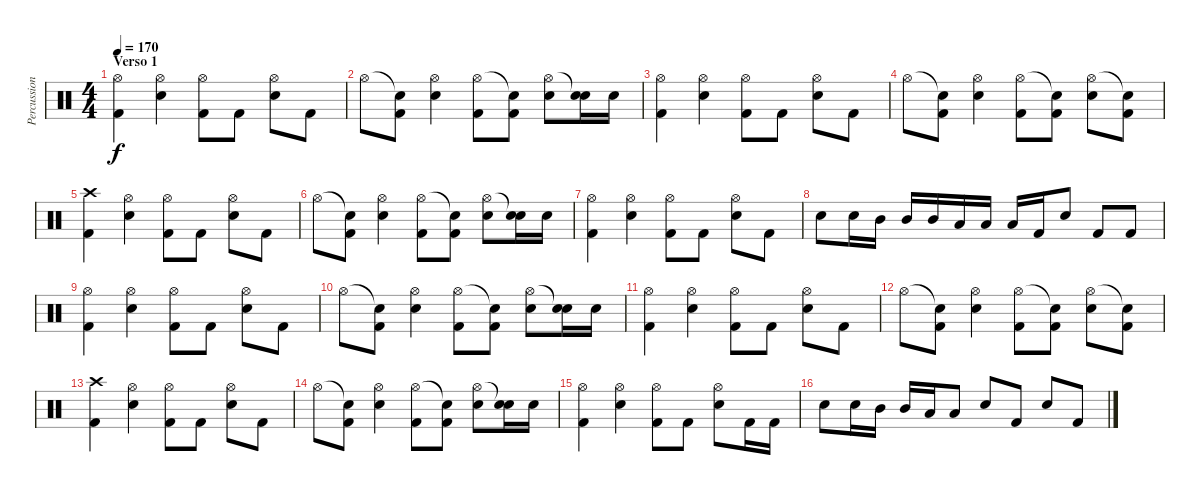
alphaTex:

\track ("Percussion" "Percussion") {instrument percussion}
\staff {score}
\articulation defaults
\ts (4 4)
\section ("" "Verso 1")
\tempo 170
\clef neutral
\ks c
("Hi-Hat (open)" "Kick (hit) 2").4{dy f} ("Hi-Hat (open)" "Electric Snare (hit)").4 ("Hi-Hat (open)" "Kick (hit) 2").8 "Kick (hit) 2".8 ("Hi-Hat (open)" "Electric Snare (hit)").8 "Kick (hit) 2".8 |
"Hi-Hat (open)".8 ("Snare (hit)"{t} "Kick (hit) 2").8 ("Hi-Hat (open)" "Electric Snare (hit)").4 ("Hi-Hat (open)" "Kick (hit) 2").8 ("Snare (hit)"{t} "Kick (hit) 2").8 ("Hi-Hat (open)" "Electric Snare (hit)").8 ("Snare (hit)"{t} "Electric Snare (hit)").16 "Electric Snare (hit)".16 |
("Hi-Hat (open)" "Kick (hit) 2").4 ("Hi-Hat (open)" "Electric Snare (hit)").4 ("Hi-Hat (open)" "Kick (hit) 2").8 "Kick (hit) 2".8 ("Hi-Hat (open)" "Electric Snare (hit)").8 "Kick (hit) 2".8 |
"Hi-Hat (open)".8 ("Snare (hit)"{t} "Kick (hit) 2").8 ("Hi-Hat (open)" "Electric Snare (hit)").4 ("Hi-Hat (open)" "Kick (hit) 2").8 ("Snare (hit)"{t} "Kick (hit) 2").8 ("Hi-Hat (open)" "Electric Snare (hit)").8 ("Snare (hit)"{t} "Kick (hit) 2").8 |
("Crash high (hit)" "Kick (hit) 2").4 ("Hi-Hat (open)" "Electric Snare (hit)").4 ("Hi-Hat (open)" "Kick (hit) 2").8 "Kick (hit) 2".8 ("Hi-Hat (open)" "Electric Snare (hit)").8 "Kick (hit) 2".8 |
"Hi-Hat (open)".8 ("Snare (hit)"{t} "Kick (hit) 2").8 ("Hi-Hat (open)" "Electric Snare (hit)").4 ("Hi-Hat (open)" "Kick (hit) 2").8 ("Snare (hit)"{t} "Kick (hit) 2").8 ("Hi-Hat (open)" "Electric Snare (hit)").8 ("Snare (hit)"{t} "Electric Snare (hit)").16 "Electric Snare (hit)".16 |
("Hi-Hat (open)" "Kick (hit) 2").4 ("Hi-Hat (open)" "Electric Snare (hit)").4 ("Hi-Hat (open)" "Kick (hit) 2").8 "Kick (hit) 2".8 ("Hi-Hat (open)" "Electric Snare (hit)").8 "Kick (hit) 2".8 |
"Electric Snare (hit)".8 "Electric Snare (hit)".16 "Mid Tom (hit)".16 "Mid Tom (hit)".16 "Mid Tom (hit)".16 "Low Tom (hit)".16 "Low Tom (hit)".16 "Low Tom (hit)".16 "Kick (hit) 2".16 "Electric Snare (hit)".8 "Kick (hit) 2".8 "Kick (hit) 2".8 |
("Hi-Hat (open)" "Kick (hit) 2").4 ("Hi-Hat (open)" "Electric Snare (hit)").4 ("Hi-Hat (open)" "Kick (hit) 2").8 "Kick (hit) 2".8 ("Hi-Hat (open)" "Electric Snare (hit)").8 "Kick (hit) 2".8 |
"Hi-Hat (open)".8 ("Snare (hit)"{t} "Kick (hit) 2").8 ("Hi-Hat (open)" "Electric Snare (hit)").4 ("Hi-Hat (open)" "Kick (hit) 2").8 ("Snare (hit)"{t} "Kick (hit) 2").8 ("Hi-Hat (open)" "Electric Snare (hit)").8 ("Snare (hit)"{t} "Electric Snare (hit)").16 "Electric Snare (hit)".16 |
("Hi-Hat (open)" "Kick (hit) 2").4 ("Hi-Hat (open)" "Electric Snare (hit)").4 ("Hi-Hat (open)" "Kick (hit) 2").8 "Kick (hit) 2".8 ("Hi-Hat (open)" "Electric Snare (hit)").8 "Kick (hit) 2".8 |
"Hi-Hat (open)".8 ("Snare (hit)"{t} "Kick (hit) 2").8 ("Hi-Hat (open)" "Electric Snare (hit)").4 ("Hi-Hat (open)" "Kick (hit) 2").8 ("Snare (hit)"{t} "Kick (hit) 2").8 ("Hi-Hat (open)" "Electric Snare (hit)").8 ("Snare (hit)"{t} "Kick (hit) 2").8 |
("Crash high (hit)" "Kick (hit) 2").4 ("Hi-Hat (open)" "Electric Snare (hit)").4 ("Hi-Hat (open)" "Kick (hit) 2").8 "Kick (hit) 2".8 ("Hi-Hat (open)" "Electric Snare (hit)").8 "Kick (hit) 2".8 |
"Hi-Hat (open)".8 ("Snare (hit)"{t} "Kick (hit) 2").8 ("Hi-Hat (open)" "Electric Snare (hit)").4 ("Hi-Hat (open)" "Kick (hit) 2").8 ("Snare (hit)"{t} "Kick (hit) 2").8 ("Hi-Hat (open)" "Electric Snare (hit)").8 ("Snare (hit)"{t} "Electric Snare (hit)").16 "Electric Snare (hit)".16 |
("Hi-Hat (open)" "Kick (hit) 2").4 ("Hi-Hat (open)" "Electric Snare (hit)").4 ("Hi-Hat (open)" "Kick (hit) 2").8 "Kick (hit) 2".8 ("Hi-Hat (open)" "Electric Snare (hit)").8 "Kick (hit) 2".16 "Kick (hit) 2".16 |
"Electric Snare (hit)".8 "Electric Snare (hit)".16 "Mid Tom (hit)".16 "Mid Tom (hit)".16 "Low Tom (hit)".16 "Low Tom (hit)".8 "Electric Snare (hit)".8 "Kick (hit) 2".8 "Electric Snare (hit)".8 "Kick (hit) 2".8
